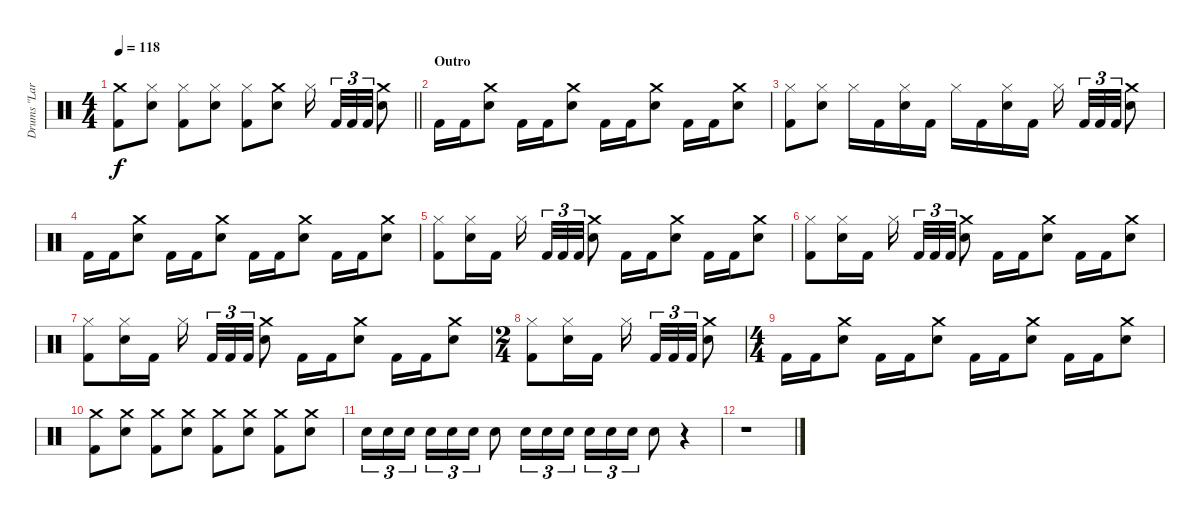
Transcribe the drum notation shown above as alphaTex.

\track ("Drums \"Lars Ulrich\"" "Drums \"Lar") {instrument percussion}
\staff {score}
\articulation defaults
\ts (4 4)
\tempo 118
\clef neutral
\barLineRight lightlight
\ks c
("Crash medium (hit)" "Kick (hit) 2").8{dy f} ("Hi-Hat (closed)" "Electric Snare (hit)").8 ("Hi-Hat (closed)" "Kick (hit) 2").8 ("Hi-Hat (closed)" "Electric Snare (hit)").8 ("Hi-Hat (closed)" "Kick (hit) 2").8 ("Crash medium (hit)" "Electric Snare (hit)").8 "Hi-Hat (closed)".16{beam splitsecondary} "Kick (hit) 2".32{tu (3 2)} "Kick (hit) 2".32{tu (3 2)} "Kick (hit) 2".32{tu (3 2)} ("Crash medium (hit)" "Electric Snare (hit)").8 |
\section ("" "Outro")
"Kick (hit) 2".16 "Kick (hit) 2".16 ("Crash medium (hit)" "Electric Snare (hit)").8 "Kick (hit) 2".16 "Kick (hit) 2".16 ("Crash medium (hit)" "Electric Snare (hit)").8 "Kick (hit) 2".16 "Kick (hit) 2".16 ("Crash medium (hit)" "Electric Snare (hit)").8 "Kick (hit) 2".16 "Kick (hit) 2".16 ("Crash medium (hit)" "Electric Snare (hit)").8 |
("Hi-Hat (closed)" "Kick (hit) 2").8 ("Hi-Hat (closed)" "Electric Snare (hit)").8 "Hi-Hat (closed)".16 "Kick (hit) 2".16 ("Hi-Hat (closed)" "Electric Snare (hit)").16 "Kick (hit) 2".16 "Hi-Hat (closed)".16 "Kick (hit) 2".16 ("Hi-Hat (closed)" "Electric Snare (hit)").16 "Kick (hit) 2".16 "Hi-Hat (closed)".16{beam splitsecondary} "Kick (hit) 2".32{tu (3 2)} "Kick (hit) 2".32{tu (3 2)} "Kick (hit) 2".32{tu (3 2)} ("Crash medium (hit)" "Electric Snare (hit)").8 |
"Kick (hit) 2".16 "Kick (hit) 2".16 ("Crash medium (hit)" "Electric Snare (hit)").8 "Kick (hit) 2".16 "Kick (hit) 2".16 ("Crash medium (hit)" "Electric Snare (hit)").8 "Kick (hit) 2".16 "Kick (hit) 2".16 ("Crash medium (hit)" "Electric Snare (hit)").8 "Kick (hit) 2".16 "Kick (hit) 2".16 ("Crash medium (hit)" "Electric Snare (hit)").8 |
("Hi-Hat (closed)" "Kick (hit) 2").8 ("Hi-Hat (closed)" "Electric Snare (hit)").16 "Kick (hit) 2".16 "Hi-Hat (closed)".16{beam splitsecondary} "Kick (hit) 2".32{tu (3 2)} "Kick (hit) 2".32{tu (3 2)} "Kick (hit) 2".32{tu (3 2)} ("Crash medium (hit)" "Electric Snare (hit)").8 "Kick (hit) 2".16 "Kick (hit) 2".16 ("Crash medium (hit)" "Electric Snare (hit)").8 "Kick (hit) 2".16 "Kick (hit) 2".16 ("Crash medium (hit)" "Electric Snare (hit)").8 |
("Hi-Hat (closed)" "Kick (hit) 2").8 ("Hi-Hat (closed)" "Electric Snare (hit)").16 "Kick (hit) 2".16 "Hi-Hat (closed)".16{beam splitsecondary} "Kick (hit) 2".32{tu (3 2)} "Kick (hit) 2".32{tu (3 2)} "Kick (hit) 2".32{tu (3 2)} ("Crash medium (hit)" "Electric Snare (hit)").8 "Kick (hit) 2".16 "Kick (hit) 2".16 ("Crash medium (hit)" "Electric Snare (hit)").8 "Kick (hit) 2".16 "Kick (hit) 2".16 ("Crash medium (hit)" "Electric Snare (hit)").8 |
("Hi-Hat (closed)" "Kick (hit) 2").8 ("Hi-Hat (closed)" "Electric Snare (hit)").16 "Kick (hit) 2".16 "Hi-Hat (closed)".16{beam splitsecondary} "Kick (hit) 2".32{tu (3 2)} "Kick (hit) 2".32{tu (3 2)} "Kick (hit) 2".32{tu (3 2)} ("Crash medium (hit)" "Electric Snare (hit)").8 "Kick (hit) 2".16 "Kick (hit) 2".16 ("Crash medium (hit)" "Electric Snare (hit)").8 "Kick (hit) 2".16 "Kick (hit) 2".16 ("Crash medium (hit)" "Electric Snare (hit)").8 |
\ts (2 4)
("Hi-Hat (closed)" "Kick (hit) 2").8 ("Hi-Hat (closed)" "Electric Snare (hit)").16 "Kick (hit) 2".16 "Hi-Hat (closed)".16{beam splitsecondary} "Kick (hit) 2".32{tu (3 2)} "Kick (hit) 2".32{tu (3 2)} "Kick (hit) 2".32{tu (3 2)} ("Crash medium (hit)" "Electric Snare (hit)").8 |
\ts (4 4)
"Kick (hit) 2".16 "Kick (hit) 2".16 ("Crash medium (hit)" "Electric Snare (hit)").8 "Kick (hit) 2".16 "Kick (hit) 2".16 ("Crash medium (hit)" "Electric Snare (hit)").8 "Kick (hit) 2".16 "Kick (hit) 2".16 ("Crash medium (hit)" "Electric Snare (hit)").8 "Kick (hit) 2".16 "Kick (hit) 2".16 ("Crash medium (hit)" "Electric Snare (hit)").8 |
("Crash medium (hit)" "Kick (hit) 2").8 ("Crash medium (hit)" "Electric Snare (hit)").8 ("Crash medium (hit)" "Kick (hit) 2").8 ("Crash medium (hit)" "Electric Snare (hit)").8 ("Crash medium (hit)" "Kick (hit) 2").8 ("Crash medium (hit)" "Electric Snare (hit)").8 ("Crash medium (hit)" "Kick (hit) 2").8 ("Crash medium (hit)" "Electric Snare (hit)").8 |
"Electric Snare (hit)".16{tu (3 2)} "Electric Snare (hit)".16{tu (3 2)} "Electric Snare (hit)".16{tu (3 2) beam splitsecondary} "Electric Snare (hit)".16{tu (3 2)} "Electric Snare (hit)".16{tu (3 2)} "Electric Snare (hit)".16{tu (3 2)} "Electric Snare (hit)".8 "Electric Snare (hit)".16{tu (3 2)} "Electric Snare (hit)".16{tu (3 2)} "Electric Snare (hit)".16{tu (3 2)} "Electric Snare (hit)".16{tu (3 2)} "Electric Snare (hit)".16{tu (3 2)} "Electric Snare (hit)".16{tu (3 2)} "Electric Snare (hit)".8 r.4 |
r.1
